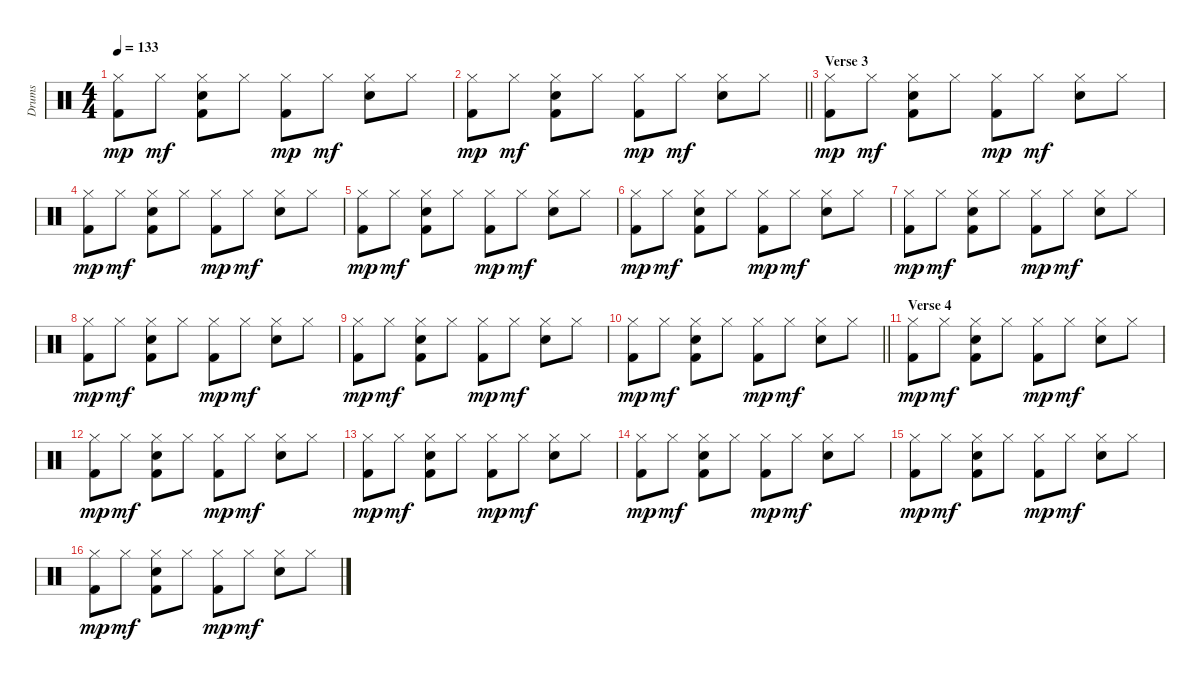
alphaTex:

\track ("Drums" "Drums") {instrument percussion}
\staff {score}
\articulation defaults
\ts (4 4)
\tempo 133
\clef neutral
\ks c
("Kick (hit) 2" "Hi-Hat (closed)").8{dy mp} "Hi-Hat (closed)".8{dy mf} ("Kick (hit) 2" "Snare (hit) 2" "Hi-Hat (closed)").8 "Hi-Hat (closed)".8 ("Kick (hit) 2" "Hi-Hat (closed)").8{dy mp} "Hi-Hat (closed)".8{dy mf} ("Snare (hit) 2" "Hi-Hat (closed)").8 "Hi-Hat (closed)".8 |
\barLineRight lightlight
("Kick (hit) 2" "Hi-Hat (closed)").8{dy mp} "Hi-Hat (closed)".8{dy mf} ("Kick (hit) 2" "Snare (hit) 2" "Hi-Hat (closed)").8 "Hi-Hat (closed)".8 ("Kick (hit) 2" "Hi-Hat (closed)").8{dy mp} "Hi-Hat (closed)".8{dy mf} ("Snare (hit) 2" "Hi-Hat (closed)").8 "Hi-Hat (closed)".8 |
\section ("" "Verse 3")
("Kick (hit) 2" "Hi-Hat (closed)").8{dy mp} "Hi-Hat (closed)".8{dy mf} ("Kick (hit) 2" "Snare (hit) 2" "Hi-Hat (closed)").8 "Hi-Hat (closed)".8 ("Kick (hit) 2" "Hi-Hat (closed)").8{dy mp} "Hi-Hat (closed)".8{dy mf} ("Snare (hit) 2" "Hi-Hat (closed)").8 "Hi-Hat (closed)".8 |
("Kick (hit) 2" "Hi-Hat (closed)").8{dy mp} "Hi-Hat (closed)".8{dy mf} ("Kick (hit) 2" "Snare (hit) 2" "Hi-Hat (closed)").8 "Hi-Hat (closed)".8 ("Kick (hit) 2" "Hi-Hat (closed)").8{dy mp} "Hi-Hat (closed)".8{dy mf} ("Snare (hit) 2" "Hi-Hat (closed)").8 "Hi-Hat (closed)".8 |
("Kick (hit) 2" "Hi-Hat (closed)").8{dy mp} "Hi-Hat (closed)".8{dy mf} ("Kick (hit) 2" "Snare (hit) 2" "Hi-Hat (closed)").8 "Hi-Hat (closed)".8 ("Kick (hit) 2" "Hi-Hat (closed)").8{dy mp} "Hi-Hat (closed)".8{dy mf} ("Snare (hit) 2" "Hi-Hat (closed)").8 "Hi-Hat (closed)".8 |
("Kick (hit) 2" "Hi-Hat (closed)").8{dy mp} "Hi-Hat (closed)".8{dy mf} ("Kick (hit) 2" "Snare (hit) 2" "Hi-Hat (closed)").8 "Hi-Hat (closed)".8 ("Kick (hit) 2" "Hi-Hat (closed)").8{dy mp} "Hi-Hat (closed)".8{dy mf} ("Snare (hit) 2" "Hi-Hat (closed)").8 "Hi-Hat (closed)".8 |
("Kick (hit) 2" "Hi-Hat (closed)").8{dy mp} "Hi-Hat (closed)".8{dy mf} ("Kick (hit) 2" "Snare (hit) 2" "Hi-Hat (closed)").8 "Hi-Hat (closed)".8 ("Kick (hit) 2" "Hi-Hat (closed)").8{dy mp} "Hi-Hat (closed)".8{dy mf} ("Snare (hit) 2" "Hi-Hat (closed)").8 "Hi-Hat (closed)".8 |
("Kick (hit) 2" "Hi-Hat (closed)").8{dy mp} "Hi-Hat (closed)".8{dy mf} ("Kick (hit) 2" "Snare (hit) 2" "Hi-Hat (closed)").8 "Hi-Hat (closed)".8 ("Kick (hit) 2" "Hi-Hat (closed)").8{dy mp} "Hi-Hat (closed)".8{dy mf} ("Snare (hit) 2" "Hi-Hat (closed)").8 "Hi-Hat (closed)".8 |
("Kick (hit) 2" "Hi-Hat (closed)").8{dy mp} "Hi-Hat (closed)".8{dy mf} ("Kick (hit) 2" "Snare (hit) 2" "Hi-Hat (closed)").8 "Hi-Hat (closed)".8 ("Kick (hit) 2" "Hi-Hat (closed)").8{dy mp} "Hi-Hat (closed)".8{dy mf} ("Snare (hit) 2" "Hi-Hat (closed)").8 "Hi-Hat (closed)".8 |
\barLineRight lightlight
("Kick (hit) 2" "Hi-Hat (closed)").8{dy mp} "Hi-Hat (closed)".8{dy mf} ("Kick (hit) 2" "Snare (hit) 2" "Hi-Hat (closed)").8 "Hi-Hat (closed)".8 ("Kick (hit) 2" "Hi-Hat (closed)").8{dy mp} "Hi-Hat (closed)".8{dy mf} ("Snare (hit) 2" "Hi-Hat (closed)").8 "Hi-Hat (closed)".8 |
\section ("" "Verse 4")
("Kick (hit) 2" "Hi-Hat (closed)").8{dy mp} "Hi-Hat (closed)".8{dy mf} ("Kick (hit) 2" "Snare (hit) 2" "Hi-Hat (closed)").8 "Hi-Hat (closed)".8 ("Kick (hit) 2" "Hi-Hat (closed)").8{dy mp} "Hi-Hat (closed)".8{dy mf} ("Snare (hit) 2" "Hi-Hat (closed)").8 "Hi-Hat (closed)".8 |
("Kick (hit) 2" "Hi-Hat (closed)").8{dy mp} "Hi-Hat (closed)".8{dy mf} ("Kick (hit) 2" "Snare (hit) 2" "Hi-Hat (closed)").8 "Hi-Hat (closed)".8 ("Kick (hit) 2" "Hi-Hat (closed)").8{dy mp} "Hi-Hat (closed)".8{dy mf} ("Snare (hit) 2" "Hi-Hat (closed)").8 "Hi-Hat (closed)".8 |
("Kick (hit) 2" "Hi-Hat (closed)").8{dy mp} "Hi-Hat (closed)".8{dy mf} ("Kick (hit) 2" "Snare (hit) 2" "Hi-Hat (closed)").8 "Hi-Hat (closed)".8 ("Kick (hit) 2" "Hi-Hat (closed)").8{dy mp} "Hi-Hat (closed)".8{dy mf} ("Snare (hit) 2" "Hi-Hat (closed)").8 "Hi-Hat (closed)".8 |
("Kick (hit) 2" "Hi-Hat (closed)").8{dy mp} "Hi-Hat (closed)".8{dy mf} ("Kick (hit) 2" "Snare (hit) 2" "Hi-Hat (closed)").8 "Hi-Hat (closed)".8 ("Kick (hit) 2" "Hi-Hat (closed)").8{dy mp} "Hi-Hat (closed)".8{dy mf} ("Snare (hit) 2" "Hi-Hat (closed)").8 "Hi-Hat (closed)".8 |
("Kick (hit) 2" "Hi-Hat (closed)").8{dy mp} "Hi-Hat (closed)".8{dy mf} ("Kick (hit) 2" "Snare (hit) 2" "Hi-Hat (closed)").8 "Hi-Hat (closed)".8 ("Kick (hit) 2" "Hi-Hat (closed)").8{dy mp} "Hi-Hat (closed)".8{dy mf} ("Snare (hit) 2" "Hi-Hat (closed)").8 "Hi-Hat (closed)".8 |
("Kick (hit) 2" "Hi-Hat (closed)").8{dy mp} "Hi-Hat (closed)".8{dy mf} ("Kick (hit) 2" "Snare (hit) 2" "Hi-Hat (closed)").8 "Hi-Hat (closed)".8 ("Kick (hit) 2" "Hi-Hat (closed)").8{dy mp} "Hi-Hat (closed)".8{dy mf} ("Snare (hit) 2" "Hi-Hat (closed)").8 "Hi-Hat (closed)".8
